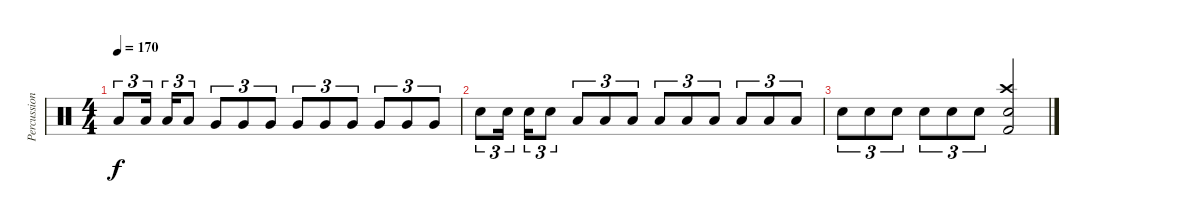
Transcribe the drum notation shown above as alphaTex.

\track ("Percussions" "Percussion") {instrument percussion}
\staff {score}
\articulation defaults
\ts (4 4)
\tempo 170
\clef neutral
\ks c "Low Tom (hit)".8{tu (3 2) dy f} "Low Tom (hit)".16{tu (3 2)} "Low Tom (hit)".16{tu (3 2)} "Low Tom (hit)".8{tu (3 2)} "Very Low Tom (hit)".8{tu (3 2)} "Very Low Tom (hit)".8{tu (3 2)} "Very Low Tom (hit)".8{tu (3 2)} "Very Low Tom (hit)".8{tu (3 2)} "Very Low Tom (hit)".8{tu (3 2)} "Very Low Tom (hit)".8{tu (3 2)} "Very Low Tom (hit)".8{tu (3 2)} "Very Low Tom (hit)".8{tu (3 2)} "Very Low Tom (hit)".8{tu (3 2)}
|
"Snare (hit) 2".8{tu (3 2)} "Snare (hit) 2".16{tu (3 2)} "Snare (hit) 2".16{tu (3 2)} "Snare (hit) 2".8{tu (3 2)} "Low Floor Tom (hit)".8{tu (3 2)} "Low Floor Tom (hit)".8{tu (3 2)} "Low Floor Tom (hit)".8{tu (3 2)} "Low Floor Tom (hit)".8{tu (3 2)} "Low Floor Tom (hit)".8{tu (3 2)} "Low Floor Tom (hit)".8{tu (3 2)} "Low Floor Tom (hit)".8{tu (3 2)} "Low Floor Tom (hit)".8{tu (3 2)} "Low Floor Tom (hit)".8{tu (3 2)} |
"Snare (hit) 2".8{tu (3 2)} "Snare (hit) 2".8{tu (3 2)} "Snare (hit) 2".8{tu (3 2)} "Snare (hit) 2".8{tu (3 2)} "Snare (hit) 2".8{tu (3 2)} "Snare (hit) 2".8{tu (3 2)} ("Crash high (hit)" "Snare (hit) 2" "Kick (hit) 2").2
